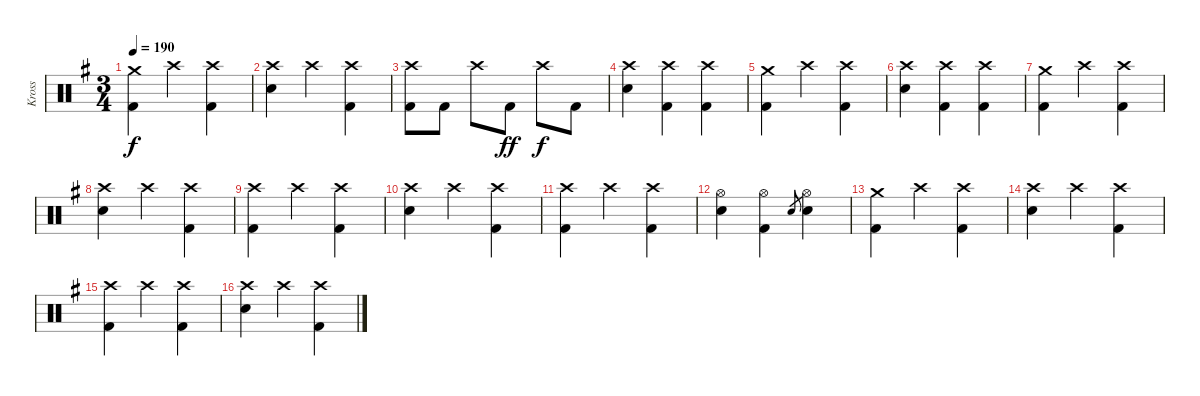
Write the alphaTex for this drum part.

\track ("Kross" "Kross") {instrument percussion}
\staff {score}
\articulation defaults
\ts (3 4)
\tempo 190
\clef neutral
\ks g
("Crash medium (hit)" "Kick (hit) 2").4{dy f} "Crash high (hit)".4 ("Crash high (hit)" "Kick (hit) 2").4 |
("Crash high (hit)" "Snare (hit) 2").4 "Crash high (hit)".4 ("Crash high (hit)" "Kick (hit) 2").4 |
("Crash high (hit)" "Kick (hit) 2").8 "Kick (hit) 2".8 "Crash high (hit)".8 "Kick (hit) 2".8{dy ff} "Crash high (hit)".8{dy f} "Kick (hit) 2".8 |
("Crash high (hit)" "Snare (hit) 2").4 ("Crash high (hit)" "Kick (hit) 2").4 ("Crash high (hit)" "Kick (hit) 2").4 |
("Crash medium (hit)" "Kick (hit) 2").4 "Crash high (hit)".4 ("Crash high (hit)" "Kick (hit) 2").4 |
("Crash high (hit)" "Snare (hit) 2").4 ("Crash high (hit)" "Kick (hit) 2").4 ("Crash high (hit)" "Kick (hit) 2").4 |
("Crash medium (hit)" "Kick (hit) 2").4 "Crash high (hit)".4 ("Crash high (hit)" "Kick (hit) 2").4 |
("Crash high (hit)" "Snare (hit) 2").4 "Crash high (hit)".4 ("Crash high (hit)" "Kick (hit) 2").4 |
("Crash high (hit)" "Kick (hit) 2").4 "Crash high (hit)".4 ("Crash high (hit)" "Kick (hit) 2").4 |
("Crash high (hit)" "Snare (hit) 2").4 "Crash high (hit)".4 ("Crash high (hit)" "Kick (hit) 2").4 |
("Crash high (hit)" "Kick (hit) 2").4 "Crash high (hit)".4 ("Crash high (hit)" "Kick (hit) 2").4 |
("Hi-Hat (open)" "Snare (hit) 2").4 ("Hi-Hat (open)" "Kick (hit) 2").4 "Electric Snare (hit)".8{gr} ("Hi-Hat (open)" "Electric Snare (hit)").4 |
("Crash medium (hit)" "Kick (hit) 2").4 "Crash high (hit)".4 ("Crash high (hit)" "Kick (hit) 2").4 |
("Crash high (hit)" "Snare (hit) 2").4 "Crash high (hit)".4 ("Crash high (hit)" "Kick (hit) 2").4 |
("Crash high (hit)" "Kick (hit) 2").4 "Crash high (hit)".4 ("Crash high (hit)" "Kick (hit) 2").4 |
("Crash high (hit)" "Snare (hit) 2").4 "Crash high (hit)".4 ("Crash high (hit)" "Kick (hit) 2").4
